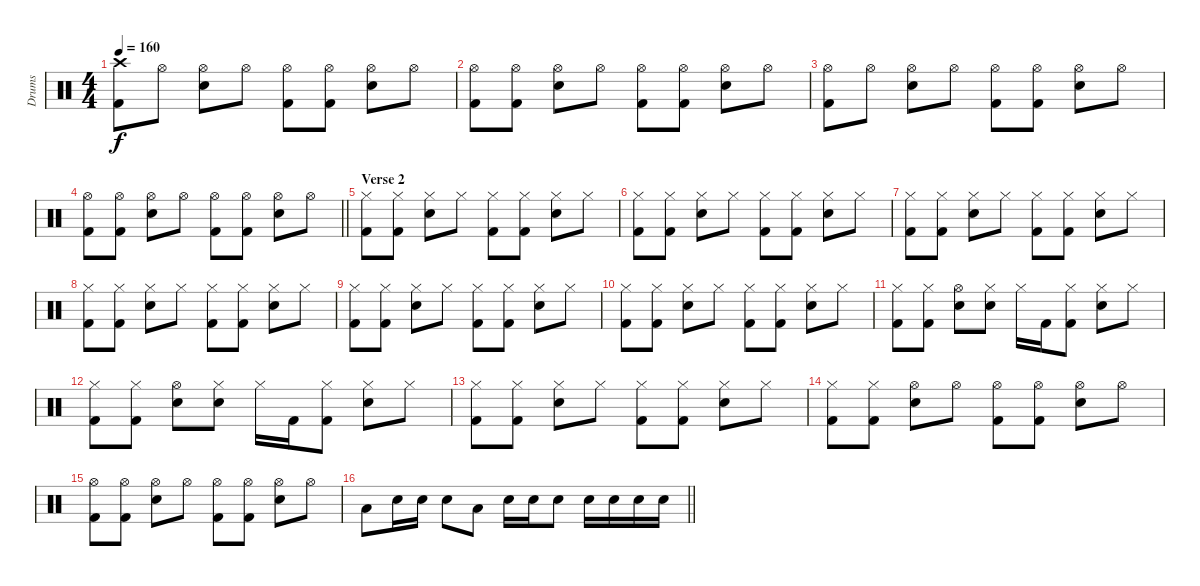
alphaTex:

\track ("Drums" "Drums") {instrument percussion}
\staff {score}
\articulation defaults
\ts (4 4)
\tempo 160
\clef neutral
\ks c
("Crash high (hit)" "Kick (hit) 2").8{dy f} "Hi-Hat (open)".8 ("Hi-Hat (open)" "Snare (hit) 2").8 "Hi-Hat (open)".8 ("Hi-Hat (open)" "Kick (hit) 2").8 ("Hi-Hat (open)" "Kick (hit) 2").8 ("Hi-Hat (open)" "Snare (hit) 2").8 "Hi-Hat (open)".8 |
("Hi-Hat (open)" "Kick (hit) 2").8 ("Hi-Hat (open)" "Kick (hit) 2").8 ("Hi-Hat (open)" "Snare (hit) 2").8 "Hi-Hat (open)".8 ("Hi-Hat (open)" "Kick (hit) 2").8 ("Hi-Hat (open)" "Kick (hit) 2").8 ("Hi-Hat (open)" "Snare (hit) 2").8 "Hi-Hat (open)".8 |
("Hi-Hat (open)" "Kick (hit) 2").8 "Hi-Hat (open)".8 ("Hi-Hat (open)" "Snare (hit) 2").8 "Hi-Hat (open)".8 ("Hi-Hat (open)" "Kick (hit) 2").8 ("Hi-Hat (open)" "Kick (hit) 2").8 ("Hi-Hat (open)" "Snare (hit) 2").8 "Hi-Hat (open)".8 |
\barLineRight lightlight
("Hi-Hat (open)" "Kick (hit) 2").8 ("Hi-Hat (open)" "Kick (hit) 2").8 ("Hi-Hat (open)" "Snare (hit) 2").8 "Hi-Hat (open)".8 ("Hi-Hat (open)" "Kick (hit) 2").8 ("Hi-Hat (open)" "Kick (hit) 2").8 ("Hi-Hat (open)" "Snare (hit) 2").8 "Hi-Hat (open)".8 |
\section ("" "Verse 2")
("Hi-Hat (closed)" "Kick (hit) 2").8 ("Hi-Hat (closed)" "Kick (hit) 2").8 ("Hi-Hat (closed)" "Snare (hit) 2").8 "Hi-Hat (closed)".8 ("Hi-Hat (closed)" "Kick (hit) 2").8 ("Hi-Hat (closed)" "Kick (hit) 2").8 ("Hi-Hat (closed)" "Snare (hit) 2").8 "Hi-Hat (closed)".8 |
("Hi-Hat (closed)" "Kick (hit) 2").8 ("Hi-Hat (closed)" "Kick (hit) 2").8 ("Hi-Hat (closed)" "Snare (hit) 2").8 "Hi-Hat (closed)".8 ("Hi-Hat (closed)" "Kick (hit) 2").8 ("Hi-Hat (closed)" "Kick (hit) 2").8 ("Hi-Hat (closed)" "Snare (hit) 2").8 "Hi-Hat (closed)".8 |
("Hi-Hat (closed)" "Kick (hit) 2").8 ("Hi-Hat (closed)" "Kick (hit) 2").8 ("Hi-Hat (closed)" "Snare (hit) 2").8 "Hi-Hat (closed)".8 ("Hi-Hat (closed)" "Kick (hit) 2").8 ("Hi-Hat (closed)" "Kick (hit) 2").8 ("Hi-Hat (closed)" "Snare (hit) 2").8 "Hi-Hat (closed)".8 |
("Hi-Hat (closed)" "Kick (hit) 2").8 ("Hi-Hat (closed)" "Kick (hit) 2").8 ("Hi-Hat (closed)" "Snare (hit) 2").8 "Hi-Hat (closed)".8 ("Hi-Hat (closed)" "Kick (hit) 2").8 ("Hi-Hat (closed)" "Kick (hit) 2").8 ("Hi-Hat (closed)" "Snare (hit) 2").8 "Hi-Hat (closed)".8 |
("Hi-Hat (closed)" "Kick (hit) 2").8 ("Hi-Hat (closed)" "Kick (hit) 2").8 ("Hi-Hat (closed)" "Snare (hit) 2").8 "Hi-Hat (closed)".8 ("Hi-Hat (closed)" "Kick (hit) 2").8 ("Hi-Hat (closed)" "Kick (hit) 2").8 ("Hi-Hat (closed)" "Snare (hit) 2").8 "Hi-Hat (closed)".8 |
("Hi-Hat (closed)" "Kick (hit) 2").8 ("Hi-Hat (closed)" "Kick (hit) 2").8 ("Hi-Hat (closed)" "Snare (hit) 2").8 "Hi-Hat (closed)".8 ("Hi-Hat (closed)" "Kick (hit) 2").8 ("Hi-Hat (closed)" "Kick (hit) 2").8 ("Hi-Hat (closed)" "Snare (hit) 2").8 "Hi-Hat (closed)".8 |
("Hi-Hat (closed)" "Kick (hit) 2").8 ("Hi-Hat (closed)" "Kick (hit) 2").8 ("Hi-Hat (open)" "Snare (hit) 2").8 ("Hi-Hat (closed)" "Snare (hit) 2").8 "Hi-Hat (closed)".16 "Kick (hit) 2".16 ("Hi-Hat (closed)" "Kick (hit) 2").8 ("Hi-Hat (closed)" "Snare (hit) 2").8 "Hi-Hat (closed)".8 |
("Hi-Hat (closed)" "Kick (hit) 2").8 ("Hi-Hat (closed)" "Kick (hit) 2").8 ("Hi-Hat (open)" "Snare (hit) 2").8 ("Hi-Hat (closed)" "Snare (hit) 2").8 "Hi-Hat (closed)".16 "Kick (hit) 2".16 ("Hi-Hat (closed)" "Kick (hit) 2").8 ("Hi-Hat (closed)" "Snare (hit) 2").8 "Hi-Hat (closed)".8 |
("Hi-Hat (closed)" "Kick (hit) 2").8 ("Hi-Hat (closed)" "Kick (hit) 2").8 ("Hi-Hat (closed)" "Snare (hit) 2").8 "Hi-Hat (closed)".8 ("Hi-Hat (closed)" "Kick (hit) 2").8 ("Hi-Hat (closed)" "Kick (hit) 2").8 ("Hi-Hat (closed)" "Snare (hit) 2").8 "Hi-Hat (closed)".8 |
("Hi-Hat (closed)" "Kick (hit) 2").8 ("Hi-Hat (closed)" "Kick (hit) 2").8 ("Hi-Hat (open)" "Snare (hit) 2").8 "Hi-Hat (open)".8 ("Hi-Hat (open)" "Kick (hit) 2").8 ("Hi-Hat (open)" "Kick (hit) 2").8 ("Hi-Hat (open)" "Snare (hit) 2").8 "Hi-Hat (open)".8 |
("Hi-Hat (open)" "Kick (hit) 2").8 ("Hi-Hat (open)" "Kick (hit) 2").8 ("Hi-Hat (open)" "Snare (hit) 2").8 "Hi-Hat (open)".8 ("Hi-Hat (open)" "Kick (hit) 2").8 ("Hi-Hat (open)" "Kick (hit) 2").8 ("Hi-Hat (open)" "Snare (hit) 2").8 "Hi-Hat (open)".8 |
\barLineRight lightlight "Low Tom (hit)".8 "Snare (hit) 2".16 "Snare (hit) 2".16 "Snare (hit) 2".8 "Low Tom (hit)".8 "Snare (hit) 2".16 "Snare (hit) 2".16 "Snare (hit) 2".8 "Snare (hit) 2".16 "Snare (hit) 2".16 "Snare (hit) 2".16 "Snare (hit) 2".16
